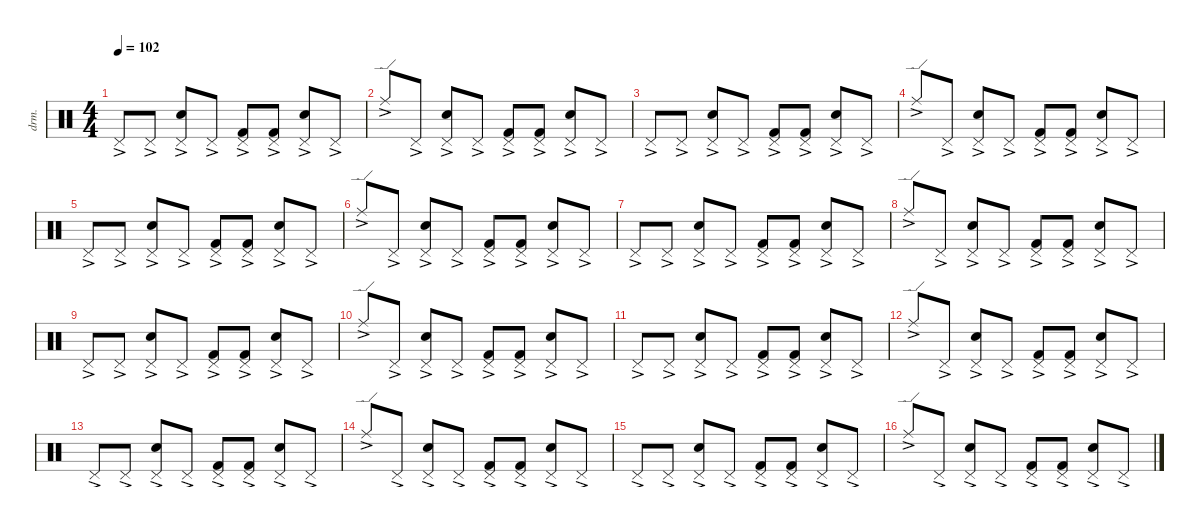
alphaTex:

\defaultSystemsLayout 4
\hideDynamics
\bracketExtendMode nobrackets
\otherSystemsTrackNameOrientation horizontal
\track ("Drumkit" "drm.") {instrument percussion}
\staff {score}
\articulation defaults
\ts (4 4)
\tempo 102
\clef neutral
\ks c "Pedal Hi-Hat (hit)"{ac}.8{dy p beam Up} "Pedal Hi-Hat (hit)"{ac}.8{beam Up}
("Snare (hit) 2" "Pedal Hi-Hat (hit)"{ac}).8{beam Up} "Pedal Hi-Hat (hit)"{ac}.8{beam Up} ("Pedal Hi-Hat (hit)"{ac} "Kick (hit) 2").8{beam Up} ("Pedal Hi-Hat (hit)"{ac} "Kick (hit) 2").8{beam Up} ("Snare (hit) 2" "Pedal Hi-Hat (hit)"{ac}).8{beam Up} "Pedal Hi-Hat (hit)"{ac}.8{beam Up} |
"Ride (edge)"{ac}.8{beam Up} "Pedal Hi-Hat (hit)"{ac}.8{beam Up} ("Snare (hit) 2" "Pedal Hi-Hat (hit)"{ac}).8{beam Up} "Pedal Hi-Hat (hit)"{ac}.8{beam Up} ("Pedal Hi-Hat (hit)"{ac} "Kick (hit) 2").8{beam Up} ("Pedal Hi-Hat (hit)"{ac} "Kick (hit) 2").8{beam Up} ("Snare (hit) 2" "Pedal Hi-Hat (hit)"{ac}).8{beam Up} "Pedal Hi-Hat (hit)"{ac}.8{beam Up} |
"Pedal Hi-Hat (hit)"{ac}.8{beam Up} "Pedal Hi-Hat (hit)"{ac}.8{beam Up} ("Snare (hit) 2" "Pedal Hi-Hat (hit)"{ac}).8{beam Up} "Pedal Hi-Hat (hit)"{ac}.8{beam Up} ("Pedal Hi-Hat (hit)"{ac} "Kick (hit) 2").8{beam Up} ("Pedal Hi-Hat (hit)"{ac} "Kick (hit) 2").8{beam Up} ("Snare (hit) 2" "Pedal Hi-Hat (hit)"{ac}).8{beam Up} "Pedal Hi-Hat (hit)"{ac}.8{beam Up} |
"Ride (edge)"{ac}.8{beam Up} "Pedal Hi-Hat (hit)"{ac}.8{beam Up} ("Snare (hit) 2" "Pedal Hi-Hat (hit)"{ac}).8{beam Up} "Pedal Hi-Hat (hit)"{ac}.8{beam Up} ("Pedal Hi-Hat (hit)"{ac} "Kick (hit) 2").8{beam Up} ("Pedal Hi-Hat (hit)"{ac} "Kick (hit) 2").8{beam Up} ("Snare (hit) 2" "Pedal Hi-Hat (hit)"{ac}).8{beam Up} "Pedal Hi-Hat (hit)"{ac}.8{beam Up} |
"Pedal Hi-Hat (hit)"{ac}.8{beam Up} "Pedal Hi-Hat (hit)"{ac}.8{beam Up} ("Snare (hit) 2" "Pedal Hi-Hat (hit)"{ac}).8{beam Up} "Pedal Hi-Hat (hit)"{ac}.8{beam Up} ("Pedal Hi-Hat (hit)"{ac} "Kick (hit) 2").8{beam Up} ("Pedal Hi-Hat (hit)"{ac} "Kick (hit) 2").8{beam Up} ("Snare (hit) 2" "Pedal Hi-Hat (hit)"{ac}).8{beam Up} "Pedal Hi-Hat (hit)"{ac}.8{beam Up} |
"Ride (edge)"{ac}.8{beam Up} "Pedal Hi-Hat (hit)"{ac}.8{beam Up} ("Snare (hit) 2" "Pedal Hi-Hat (hit)"{ac}).8{beam Up} "Pedal Hi-Hat (hit)"{ac}.8{beam Up} ("Pedal Hi-Hat (hit)"{ac} "Kick (hit) 2").8{beam Up} ("Pedal Hi-Hat (hit)"{ac} "Kick (hit) 2").8{beam Up} ("Snare (hit) 2" "Pedal Hi-Hat (hit)"{ac}).8{beam Up} "Pedal Hi-Hat (hit)"{ac}.8{beam Up} |
"Pedal Hi-Hat (hit)"{ac}.8{beam Up} "Pedal Hi-Hat (hit)"{ac}.8{beam Up} ("Snare (hit) 2" "Pedal Hi-Hat (hit)"{ac}).8{beam Up} "Pedal Hi-Hat (hit)"{ac}.8{beam Up} ("Pedal Hi-Hat (hit)"{ac} "Kick (hit) 2").8{beam Up} ("Pedal Hi-Hat (hit)"{ac} "Kick (hit) 2").8{beam Up} ("Snare (hit) 2" "Pedal Hi-Hat (hit)"{ac}).8{beam Up} "Pedal Hi-Hat (hit)"{ac}.8{beam Up} |
"Ride (edge)"{ac}.8{beam Up} "Pedal Hi-Hat (hit)"{ac}.8{beam Up} ("Snare (hit) 2" "Pedal Hi-Hat (hit)"{ac}).8{beam Up} "Pedal Hi-Hat (hit)"{ac}.8{beam Up} ("Pedal Hi-Hat (hit)"{ac} "Kick (hit) 2").8{beam Up} ("Pedal Hi-Hat (hit)"{ac} "Kick (hit) 2").8{beam Up} ("Snare (hit) 2" "Pedal Hi-Hat (hit)"{ac}).8{beam Up} "Pedal Hi-Hat (hit)"{ac}.8{beam Up} |
"Pedal Hi-Hat (hit)"{ac}.8{beam Up} "Pedal Hi-Hat (hit)"{ac}.8{beam Up} ("Snare (hit) 2" "Pedal Hi-Hat (hit)"{ac}).8{beam Up} "Pedal Hi-Hat (hit)"{ac}.8{beam Up} ("Pedal Hi-Hat (hit)"{ac} "Kick (hit) 2").8{beam Up} ("Pedal Hi-Hat (hit)"{ac} "Kick (hit) 2").8{beam Up} ("Snare (hit) 2" "Pedal Hi-Hat (hit)"{ac}).8{beam Up} "Pedal Hi-Hat (hit)"{ac}.8{beam Up} |
"Ride (edge)"{ac}.8{beam Up} "Pedal Hi-Hat (hit)"{ac}.8{beam Up} ("Snare (hit) 2" "Pedal Hi-Hat (hit)"{ac}).8{beam Up} "Pedal Hi-Hat (hit)"{ac}.8{beam Up} ("Pedal Hi-Hat (hit)"{ac} "Kick (hit) 2").8{beam Up} ("Pedal Hi-Hat (hit)"{ac} "Kick (hit) 2").8{beam Up} ("Snare (hit) 2" "Pedal Hi-Hat (hit)"{ac}).8{beam Up} "Pedal Hi-Hat (hit)"{ac}.8{beam Up} |
"Pedal Hi-Hat (hit)"{ac}.8{beam Up} "Pedal Hi-Hat (hit)"{ac}.8{beam Up} ("Snare (hit) 2" "Pedal Hi-Hat (hit)"{ac}).8{beam Up} "Pedal Hi-Hat (hit)"{ac}.8{beam Up} ("Pedal Hi-Hat (hit)"{ac} "Kick (hit) 2").8{beam Up} ("Pedal Hi-Hat (hit)"{ac} "Kick (hit) 2").8{beam Up} ("Snare (hit) 2" "Pedal Hi-Hat (hit)"{ac}).8{beam Up} "Pedal Hi-Hat (hit)"{ac}.8{beam Up} |
"Ride (edge)"{ac}.8{beam Up} "Pedal Hi-Hat (hit)"{ac}.8{beam Up} ("Snare (hit) 2" "Pedal Hi-Hat (hit)"{ac}).8{beam Up} "Pedal Hi-Hat (hit)"{ac}.8{beam Up} ("Pedal Hi-Hat (hit)"{ac} "Kick (hit) 2").8{beam Up} ("Pedal Hi-Hat (hit)"{ac} "Kick (hit) 2").8{beam Up} ("Snare (hit) 2" "Pedal Hi-Hat (hit)"{ac}).8{beam Up} "Pedal Hi-Hat (hit)"{ac}.8{beam Up} |
"Pedal Hi-Hat (hit)"{ac}.8{beam Up} "Pedal Hi-Hat (hit)"{ac}.8{beam Up} ("Snare (hit) 2" "Pedal Hi-Hat (hit)"{ac}).8{beam Up} "Pedal Hi-Hat (hit)"{ac}.8{beam Up} ("Pedal Hi-Hat (hit)"{ac} "Kick (hit) 2").8{beam Up} ("Pedal Hi-Hat (hit)"{ac} "Kick (hit) 2").8{beam Up} ("Snare (hit) 2" "Pedal Hi-Hat (hit)"{ac}).8{beam Up} "Pedal Hi-Hat (hit)"{ac}.8{beam Up} |
"Ride (edge)"{ac}.8{beam Up} "Pedal Hi-Hat (hit)"{ac}.8{beam Up} ("Snare (hit) 2" "Pedal Hi-Hat (hit)"{ac}).8{beam Up} "Pedal Hi-Hat (hit)"{ac}.8{beam Up} ("Pedal Hi-Hat (hit)"{ac} "Kick (hit) 2").8{beam Up} ("Pedal Hi-Hat (hit)"{ac} "Kick (hit) 2").8{beam Up} ("Snare (hit) 2" "Pedal Hi-Hat (hit)"{ac}).8{beam Up} "Pedal Hi-Hat (hit)"{ac}.8{beam Up} |
"Pedal Hi-Hat (hit)"{ac}.8{beam Up} "Pedal Hi-Hat (hit)"{ac}.8{beam Up} ("Snare (hit) 2" "Pedal Hi-Hat (hit)"{ac}).8{beam Up} "Pedal Hi-Hat (hit)"{ac}.8{beam Up} ("Pedal Hi-Hat (hit)"{ac} "Kick (hit) 2").8{beam Up} ("Pedal Hi-Hat (hit)"{ac} "Kick (hit) 2").8{beam Up} ("Snare (hit) 2" "Pedal Hi-Hat (hit)"{ac}).8{beam Up} "Pedal Hi-Hat (hit)"{ac}.8{beam Up} |
"Ride (edge)"{ac}.8{beam Up} "Pedal Hi-Hat (hit)"{ac}.8{beam Up} ("Snare (hit) 2" "Pedal Hi-Hat (hit)"{ac}).8{beam Up} "Pedal Hi-Hat (hit)"{ac}.8{beam Up} ("Pedal Hi-Hat (hit)"{ac} "Kick (hit) 2").8{beam Up} ("Pedal Hi-Hat (hit)"{ac} "Kick (hit) 2").8{beam Up} ("Snare (hit) 2" "Pedal Hi-Hat (hit)"{ac}).8{beam Up} "Pedal Hi-Hat (hit)"{ac}.8{beam Up}
